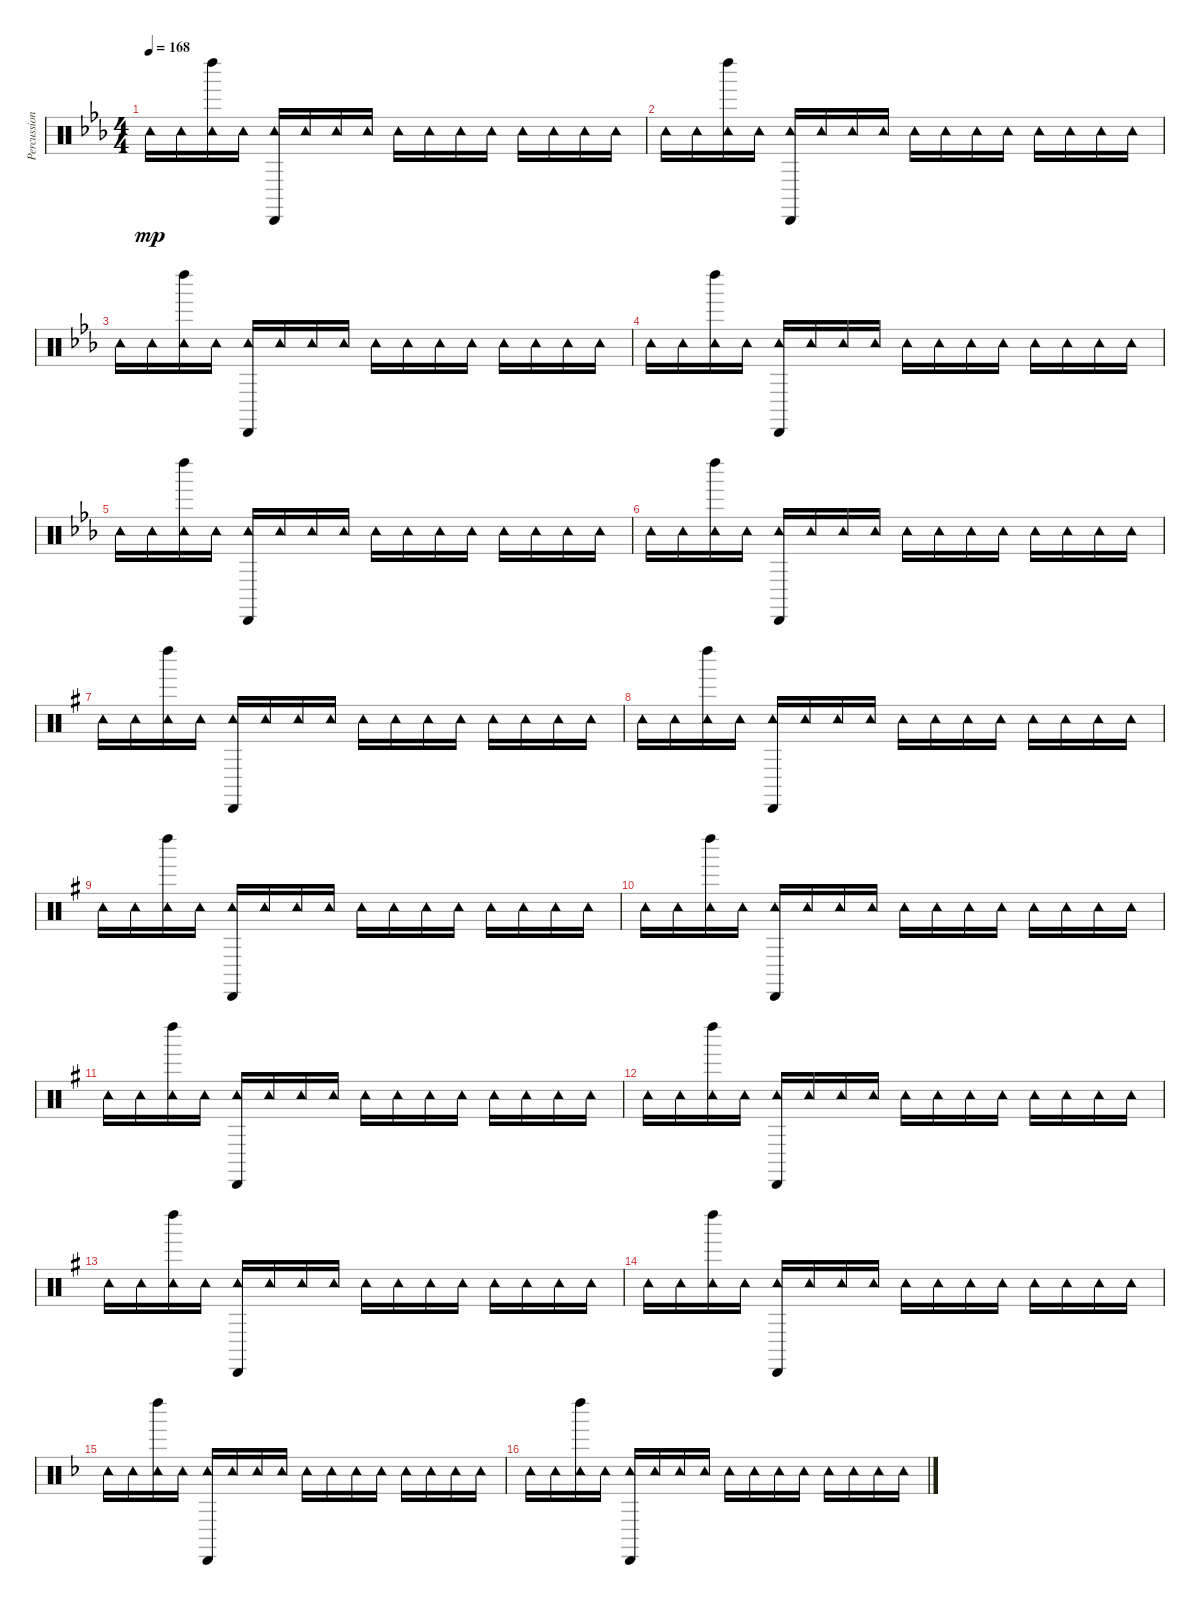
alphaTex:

\track ("Percussions" "Percussion") {instrument percussion}
\staff {score}
\articulation defaults
\ts (4 4)
\tempo 168
\clef neutral
\ks eb "Tambourine (hit)".16{dy mp} "Tambourine (hit)".16
("Left Maraca (hit)" "Tambourine (hit)").16 "Tambourine (hit)".16 ("Cabasa (hit)" "Tambourine (hit)").16 "Tambourine (hit)".16 "Tambourine (hit)".16 "Tambourine (hit)".16 "Tambourine (hit)".16 "Tambourine (hit)".16 "Tambourine (hit)".16 "Tambourine (hit)".16 "Tambourine (hit)".16 "Tambourine (hit)".16 "Tambourine (hit)".16 "Tambourine (hit)".16 |
"Tambourine (hit)".16 "Tambourine (hit)".16 ("Left Maraca (hit)" "Tambourine (hit)").16 "Tambourine (hit)".16 ("Cabasa (hit)" "Tambourine (hit)").16 "Tambourine (hit)".16 "Tambourine (hit)".16 "Tambourine (hit)".16 "Tambourine (hit)".16 "Tambourine (hit)".16 "Tambourine (hit)".16 "Tambourine (hit)".16 "Tambourine (hit)".16 "Tambourine (hit)".16 "Tambourine (hit)".16 "Tambourine (hit)".16 |
"Tambourine (hit)".16 "Tambourine (hit)".16 ("Left Maraca (hit)" "Tambourine (hit)").16 "Tambourine (hit)".16 ("Cabasa (hit)" "Tambourine (hit)").16 "Tambourine (hit)".16 "Tambourine (hit)".16 "Tambourine (hit)".16 "Tambourine (hit)".16 "Tambourine (hit)".16 "Tambourine (hit)".16 "Tambourine (hit)".16 "Tambourine (hit)".16 "Tambourine (hit)".16 "Tambourine (hit)".16 "Tambourine (hit)".16 |
"Tambourine (hit)".16 "Tambourine (hit)".16 ("Left Maraca (hit)" "Tambourine (hit)").16 "Tambourine (hit)".16 ("Cabasa (hit)" "Tambourine (hit)").16 "Tambourine (hit)".16 "Tambourine (hit)".16 "Tambourine (hit)".16 "Tambourine (hit)".16 "Tambourine (hit)".16 "Tambourine (hit)".16 "Tambourine (hit)".16 "Tambourine (hit)".16 "Tambourine (hit)".16 "Tambourine (hit)".16 "Tambourine (hit)".16 |
"Tambourine (hit)".16 "Tambourine (hit)".16 ("Left Maraca (hit)" "Tambourine (hit)").16 "Tambourine (hit)".16 ("Cabasa (hit)" "Tambourine (hit)").16 "Tambourine (hit)".16 "Tambourine (hit)".16 "Tambourine (hit)".16 "Tambourine (hit)".16 "Tambourine (hit)".16 "Tambourine (hit)".16 "Tambourine (hit)".16 "Tambourine (hit)".16 "Tambourine (hit)".16 "Tambourine (hit)".16 "Tambourine (hit)".16 |
"Tambourine (hit)".16 "Tambourine (hit)".16 ("Left Maraca (hit)" "Tambourine (hit)").16 "Tambourine (hit)".16 ("Cabasa (hit)" "Tambourine (hit)").16 "Tambourine (hit)".16 "Tambourine (hit)".16 "Tambourine (hit)".16 "Tambourine (hit)".16 "Tambourine (hit)".16 "Tambourine (hit)".16 "Tambourine (hit)".16 "Tambourine (hit)".16 "Tambourine (hit)".16 "Tambourine (hit)".16 "Tambourine (hit)".16 |
\ks g "Tambourine (hit)".16 "Tambourine (hit)".16
("Left Maraca (hit)" "Tambourine (hit)").16 "Tambourine (hit)".16 ("Cabasa (hit)" "Tambourine (hit)").16 "Tambourine (hit)".16 "Tambourine (hit)".16 "Tambourine (hit)".16 "Tambourine (hit)".16 "Tambourine (hit)".16 "Tambourine (hit)".16 "Tambourine (hit)".16 "Tambourine (hit)".16 "Tambourine (hit)".16 "Tambourine (hit)".16 "Tambourine (hit)".16 |
"Tambourine (hit)".16 "Tambourine (hit)".16 ("Left Maraca (hit)" "Tambourine (hit)").16 "Tambourine (hit)".16 ("Cabasa (hit)" "Tambourine (hit)").16 "Tambourine (hit)".16 "Tambourine (hit)".16 "Tambourine (hit)".16 "Tambourine (hit)".16 "Tambourine (hit)".16 "Tambourine (hit)".16 "Tambourine (hit)".16 "Tambourine (hit)".16 "Tambourine (hit)".16 "Tambourine (hit)".16 "Tambourine (hit)".16 |
"Tambourine (hit)".16 "Tambourine (hit)".16 ("Left Maraca (hit)" "Tambourine (hit)").16 "Tambourine (hit)".16 ("Cabasa (hit)" "Tambourine (hit)").16 "Tambourine (hit)".16 "Tambourine (hit)".16 "Tambourine (hit)".16 "Tambourine (hit)".16 "Tambourine (hit)".16 "Tambourine (hit)".16 "Tambourine (hit)".16 "Tambourine (hit)".16 "Tambourine (hit)".16 "Tambourine (hit)".16 "Tambourine (hit)".16 |
"Tambourine (hit)".16 "Tambourine (hit)".16 ("Left Maraca (hit)" "Tambourine (hit)").16 "Tambourine (hit)".16 ("Cabasa (hit)" "Tambourine (hit)").16 "Tambourine (hit)".16 "Tambourine (hit)".16 "Tambourine (hit)".16 "Tambourine (hit)".16 "Tambourine (hit)".16 "Tambourine (hit)".16 "Tambourine (hit)".16 "Tambourine (hit)".16 "Tambourine (hit)".16 "Tambourine (hit)".16 "Tambourine (hit)".16 |
"Tambourine (hit)".16 "Tambourine (hit)".16 ("Left Maraca (hit)" "Tambourine (hit)").16 "Tambourine (hit)".16 ("Cabasa (hit)" "Tambourine (hit)").16 "Tambourine (hit)".16 "Tambourine (hit)".16 "Tambourine (hit)".16 "Tambourine (hit)".16 "Tambourine (hit)".16 "Tambourine (hit)".16 "Tambourine (hit)".16 "Tambourine (hit)".16 "Tambourine (hit)".16 "Tambourine (hit)".16 "Tambourine (hit)".16 |
"Tambourine (hit)".16 "Tambourine (hit)".16 ("Left Maraca (hit)" "Tambourine (hit)").16 "Tambourine (hit)".16 ("Cabasa (hit)" "Tambourine (hit)").16 "Tambourine (hit)".16 "Tambourine (hit)".16 "Tambourine (hit)".16 "Tambourine (hit)".16 "Tambourine (hit)".16 "Tambourine (hit)".16 "Tambourine (hit)".16 "Tambourine (hit)".16 "Tambourine (hit)".16 "Tambourine (hit)".16 "Tambourine (hit)".16 |
"Tambourine (hit)".16 "Tambourine (hit)".16 ("Left Maraca (hit)" "Tambourine (hit)").16 "Tambourine (hit)".16 ("Cabasa (hit)" "Tambourine (hit)").16 "Tambourine (hit)".16 "Tambourine (hit)".16 "Tambourine (hit)".16 "Tambourine (hit)".16 "Tambourine (hit)".16 "Tambourine (hit)".16 "Tambourine (hit)".16 "Tambourine (hit)".16 "Tambourine (hit)".16 "Tambourine (hit)".16 "Tambourine (hit)".16 |
"Tambourine (hit)".16 "Tambourine (hit)".16 ("Left Maraca (hit)" "Tambourine (hit)").16 "Tambourine (hit)".16 ("Cabasa (hit)" "Tambourine (hit)").16 "Tambourine (hit)".16 "Tambourine (hit)".16 "Tambourine (hit)".16 "Tambourine (hit)".16 "Tambourine (hit)".16 "Tambourine (hit)".16 "Tambourine (hit)".16 "Tambourine (hit)".16 "Tambourine (hit)".16 "Tambourine (hit)".16 "Tambourine (hit)".16 |
\ks f "Tambourine (hit)".16 "Tambourine (hit)".16
("Left Maraca (hit)" "Tambourine (hit)").16 "Tambourine (hit)".16 ("Cabasa (hit)" "Tambourine (hit)").16 "Tambourine (hit)".16 "Tambourine (hit)".16 "Tambourine (hit)".16 "Tambourine (hit)".16 "Tambourine (hit)".16 "Tambourine (hit)".16 "Tambourine (hit)".16 "Tambourine (hit)".16 "Tambourine (hit)".16 "Tambourine (hit)".16 "Tambourine (hit)".16 |
"Tambourine (hit)".16 "Tambourine (hit)".16 ("Left Maraca (hit)" "Tambourine (hit)").16 "Tambourine (hit)".16 ("Cabasa (hit)" "Tambourine (hit)").16 "Tambourine (hit)".16 "Tambourine (hit)".16 "Tambourine (hit)".16 "Tambourine (hit)".16 "Tambourine (hit)".16 "Tambourine (hit)".16 "Tambourine (hit)".16 "Tambourine (hit)".16 "Tambourine (hit)".16 "Tambourine (hit)".16 "Tambourine (hit)".16
